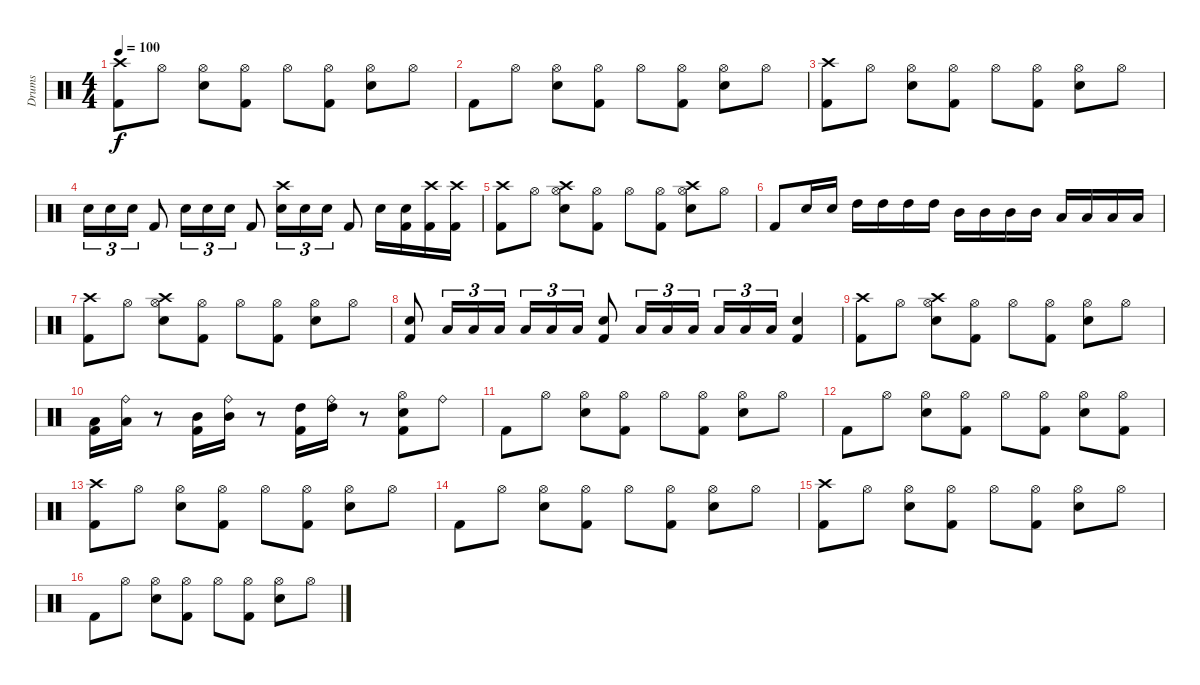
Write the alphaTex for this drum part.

\track ("Drums" "Drums") {instrument percussion}
\staff {score}
\articulation defaults
\ts (4 4)
\tempo 100
\clef neutral
\ks c
("Crash high (hit)" "Kick (hit) 2").8{dy f} "Hi-Hat (open)".8 ("Hi-Hat (open)" "Electric Snare (hit)").8 ("Hi-Hat (open)" "Kick (hit) 2").8 "Hi-Hat (open)".8 ("Hi-Hat (open)" "Kick (hit) 2").8 ("Hi-Hat (open)" "Electric Snare (hit)").8 "Hi-Hat (open)".8 |
"Kick (hit) 2".8 "Hi-Hat (open)".8 ("Hi-Hat (open)" "Electric Snare (hit)").8 ("Hi-Hat (open)" "Kick (hit) 2").8 "Hi-Hat (open)".8 ("Hi-Hat (open)" "Kick (hit) 2").8 ("Hi-Hat (open)" "Electric Snare (hit)").8 "Hi-Hat (open)".8 |
("Crash high (hit)" "Kick (hit) 2").8 "Hi-Hat (open)".8 ("Hi-Hat (open)" "Electric Snare (hit)").8 ("Hi-Hat (open)" "Kick (hit) 2").8 "Hi-Hat (open)".8 ("Hi-Hat (open)" "Kick (hit) 2").8 ("Hi-Hat (open)" "Electric Snare (hit)").8 "Hi-Hat (open)".8 |
"Electric Snare (hit)".16{tu (3 2)} "Electric Snare (hit)".16{tu (3 2)} "Electric Snare (hit)".16{tu (3 2)} "Kick (hit) 2".8 "Electric Snare (hit)".16{tu (3 2)} "Electric Snare (hit)".16{tu (3 2)} "Electric Snare (hit)".16{tu (3 2)} "Kick (hit) 2".8 ("Crash high (hit)" "Electric Snare (hit)").16{tu (3 2)} "Electric Snare (hit)".16{tu (3 2)} "Electric Snare (hit)".16{tu (3 2)} "Kick (hit) 2".8 "Electric Snare (hit)".16 ("Electric Snare (hit)" "Kick (hit) 2").16 ("Crash high (hit)" "Kick (hit) 2").16 ("Crash high (hit)" "Kick (hit) 2").16 |
("Crash high (hit)" "Kick (hit) 2").8 "Hi-Hat (open)".8 ("Crash high (hit)" "Hi-Hat (open)" "Electric Snare (hit)").8 ("Hi-Hat (open)" "Kick (hit) 2").8 "Hi-Hat (open)".8 ("Hi-Hat (open)" "Kick (hit) 2").8 ("Crash high (hit)" "Hi-Hat (open)" "Electric Snare (hit)").8 "Hi-Hat (open)".8 |
"Kick (hit) 2".8 "Electric Snare (hit)".16 "Electric Snare (hit)".16 "High Tom (hit)".16 "High Tom (hit)".16 "High Tom (hit)".16 "High Tom (hit)".16 "Mid Tom (hit)".16 "Mid Tom (hit)".16 "Mid Tom (hit)".16 "Mid Tom (hit)".16 "Low Tom (hit)".16 "Low Tom (hit)".16 "Low Tom (hit)".16 "Low Tom (hit)".16 |
("Crash high (hit)" "Kick (hit) 2").8 "Hi-Hat (open)".8 ("Crash high (hit)" "Hi-Hat (open)" "Electric Snare (hit)").8 ("Hi-Hat (open)" "Kick (hit) 2").8 "Hi-Hat (open)".8 ("Hi-Hat (open)" "Kick (hit) 2").8 ("Hi-Hat (open)" "Electric Snare (hit)").8 "Hi-Hat (open)".8 |
("Electric Snare (hit)" "Kick (hit) 2").8 "Low Tom (hit)".16{tu (3 2)} "Low Tom (hit)".16{tu (3 2)} "Low Tom (hit)".16{tu (3 2)} "Low Tom (hit)".16{tu (3 2)} "Low Tom (hit)".16{tu (3 2)} "Low Tom (hit)".16{tu (3 2)} ("Electric Snare (hit)" "Kick (hit) 2").8 "Low Tom (hit)".16{tu (3 2)} "Low Tom (hit)".16{tu (3 2)} "Low Tom (hit)".16{tu (3 2)} "Low Tom (hit)".16{tu (3 2)} "Low Tom (hit)".16{tu (3 2)} "Low Tom (hit)".16{tu (3 2)} ("Electric Snare (hit)" "Kick (hit) 2").4 |
("Crash high (hit)" "Kick (hit) 2").8 "Hi-Hat (open)".8 ("Crash high (hit)" "Hi-Hat (open)" "Electric Snare (hit)").8 ("Hi-Hat (open)" "Kick (hit) 2").8 "Hi-Hat (open)".8 ("Hi-Hat (open)" "Kick (hit) 2").8 ("Hi-Hat (open)" "Electric Snare (hit)").8 "Hi-Hat (open)".8 |
("Low Tom (hit)" "Kick (hit) 2").16 ("Low Tom (hit)" "Ride (bell)").16 r.8 ("Mid Tom (hit)" "Kick (hit) 2").16 ("Mid Tom (hit)" "Ride (bell)").16 r.8 ("High Tom (hit)" "Kick (hit) 2").16 ("High Tom (hit)" "Ride (bell)").16 r.8 ("Electric Snare (hit)" "Hi-Hat (open)" "Kick (hit) 2").8 "Ride (bell)".8 |
"Kick (hit) 2".8 "Hi-Hat (open)".8 ("Hi-Hat (open)" "Electric Snare (hit)").8 ("Hi-Hat (open)" "Kick (hit) 2").8 "Hi-Hat (open)".8 ("Hi-Hat (open)" "Kick (hit) 2").8 ("Hi-Hat (open)" "Electric Snare (hit)").8 "Hi-Hat (open)".8 |
"Kick (hit) 2".8 "Hi-Hat (open)".8 ("Hi-Hat (open)" "Electric Snare (hit)").8 ("Hi-Hat (open)" "Kick (hit) 2").8 "Hi-Hat (open)".8 ("Hi-Hat (open)" "Kick (hit) 2").8 ("Hi-Hat (open)" "Electric Snare (hit)").8 ("Hi-Hat (open)" "Kick (hit) 2").8 |
("Crash high (hit)" "Kick (hit) 2").8 "Hi-Hat (open)".8 ("Hi-Hat (open)" "Electric Snare (hit)").8 ("Hi-Hat (open)" "Kick (hit) 2").8 "Hi-Hat (open)".8 ("Hi-Hat (open)" "Kick (hit) 2").8 ("Hi-Hat (open)" "Electric Snare (hit)").8 "Hi-Hat (open)".8 |
"Kick (hit) 2".8 "Hi-Hat (open)".8 ("Hi-Hat (open)" "Electric Snare (hit)").8 ("Hi-Hat (open)" "Kick (hit) 2").8 "Hi-Hat (open)".8 ("Hi-Hat (open)" "Kick (hit) 2").8 ("Hi-Hat (open)" "Electric Snare (hit)").8 "Hi-Hat (open)".8 |
("Crash high (hit)" "Kick (hit) 2").8 "Hi-Hat (open)".8 ("Hi-Hat (open)" "Electric Snare (hit)").8 ("Hi-Hat (open)" "Kick (hit) 2").8 "Hi-Hat (open)".8 ("Hi-Hat (open)" "Kick (hit) 2").8 ("Hi-Hat (open)" "Electric Snare (hit)").8 "Hi-Hat (open)".8 |
"Kick (hit) 2".8 "Hi-Hat (open)".8 ("Hi-Hat (open)" "Electric Snare (hit)").8 ("Hi-Hat (open)" "Kick (hit) 2").8 "Hi-Hat (open)".8 ("Hi-Hat (open)" "Kick (hit) 2").8 ("Hi-Hat (open)" "Electric Snare (hit)").8 "Hi-Hat (open)".8
